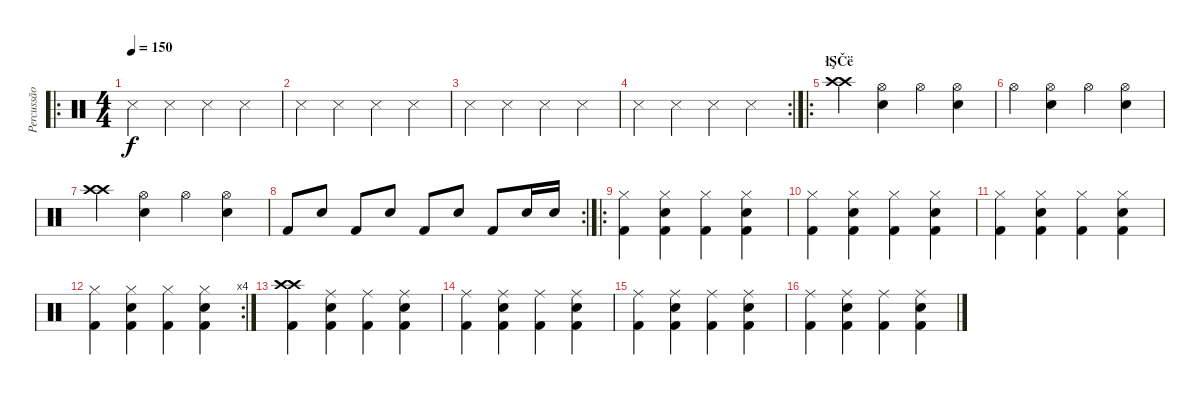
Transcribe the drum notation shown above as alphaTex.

\track ("Percussăo" "Percussăo") {instrument percussion}
\staff {score}
\articulation defaults
\ro
\ts (4 4)
\tempo 150
\clef neutral
\ks c "Snare (side stick) 3".4{dy f} "Snare (side stick) 3".4 "Snare (side stick) 3".4 "Snare (side stick) 3".4
|
"Snare (side stick) 3".4 "Snare (side stick) 3".4 "Snare (side stick) 3".4 "Snare (side stick) 3".4 |
"Snare (side stick) 3".4 "Snare (side stick) 3".4 "Snare (side stick) 3".4 "Snare (side stick) 3".4 |
\rc 2 "Snare (side stick) 3".4 "Snare (side stick) 3".4 "Snare (side stick) 3".4 "Snare (side stick) 3".4
|
\ro
\section ("" "łŞČë")
("Crash high (hit)" "Crash high (hit)").4 ("Hi-Hat (open)" "Snare (hit) 2").4 "Hi-Hat (open)".4 ("Hi-Hat (open)" "Snare (hit) 2").4 |
"Hi-Hat (open)".4 ("Hi-Hat (open)" "Snare (hit) 2").4 "Hi-Hat (open)".4 ("Hi-Hat (open)" "Snare (hit) 2").4 |
("Crash high (hit)" "Crash high (hit)").4 ("Hi-Hat (open)" "Snare (hit) 2").4 "Hi-Hat (open)".4 ("Hi-Hat (open)" "Snare (hit) 2").4 |
\rc 2 "Kick (hit) 2".8 "Snare (hit) 2".8 "Kick (hit) 2".8 "Snare (hit) 2".8 "Kick (hit) 2".8 "Snare (hit) 2".8 "Kick (hit) 2".8 "Snare (hit) 2".16 "Snare (hit) 2".16
|
\ro
("Hi-Hat (closed)" "Kick (hit) 2").4 ("Hi-Hat (closed)" "Snare (hit) 2" "Kick (hit) 2").4 ("Hi-Hat (closed)" "Kick (hit) 2").4 ("Hi-Hat (closed)" "Snare (hit) 2" "Kick (hit) 2").4 |
("Hi-Hat (closed)" "Kick (hit) 2").4 ("Hi-Hat (closed)" "Snare (hit) 2" "Kick (hit) 2").4 ("Hi-Hat (closed)" "Kick (hit) 2").4 ("Hi-Hat (closed)" "Snare (hit) 2" "Kick (hit) 2").4 |
("Hi-Hat (closed)" "Kick (hit) 2").4 ("Hi-Hat (closed)" "Snare (hit) 2" "Kick (hit) 2").4 ("Hi-Hat (closed)" "Kick (hit) 2").4 ("Hi-Hat (closed)" "Snare (hit) 2" "Kick (hit) 2").4 |
\rc 4
("Hi-Hat (closed)" "Kick (hit) 2").4 ("Hi-Hat (closed)" "Snare (hit) 2" "Kick (hit) 2").4 ("Hi-Hat (closed)" "Kick (hit) 2").4 ("Hi-Hat (closed)" "Snare (hit) 2" "Kick (hit) 2").4 |
("Crash high (hit)" "Crash high (hit)" "Kick (hit) 2").4 ("Ride (middle)" "Snare (hit) 2" "Kick (hit) 2").4 ("Ride (middle)" "Kick (hit) 2").4 ("Ride (middle)" "Snare (hit) 2" "Kick (hit) 2").4 |
("Ride (middle)" "Kick (hit) 2").4 ("Ride (middle)" "Snare (hit) 2" "Kick (hit) 2").4 ("Ride (middle)" "Kick (hit) 2").4 ("Ride (middle)" "Snare (hit) 2" "Kick (hit) 2").4 |
("Ride (middle)" "Kick (hit) 2").4 ("Ride (middle)" "Snare (hit) 2" "Kick (hit) 2").4 ("Ride (middle)" "Kick (hit) 2").4 ("Ride (middle)" "Snare (hit) 2" "Kick (hit) 2").4 |
("Ride (middle)" "Kick (hit) 2").4 ("Ride (middle)" "Snare (hit) 2" "Kick (hit) 2").4 ("Ride (middle)" "Kick (hit) 2").4 ("Ride (middle)" "Snare (hit) 2" "Kick (hit) 2").4
